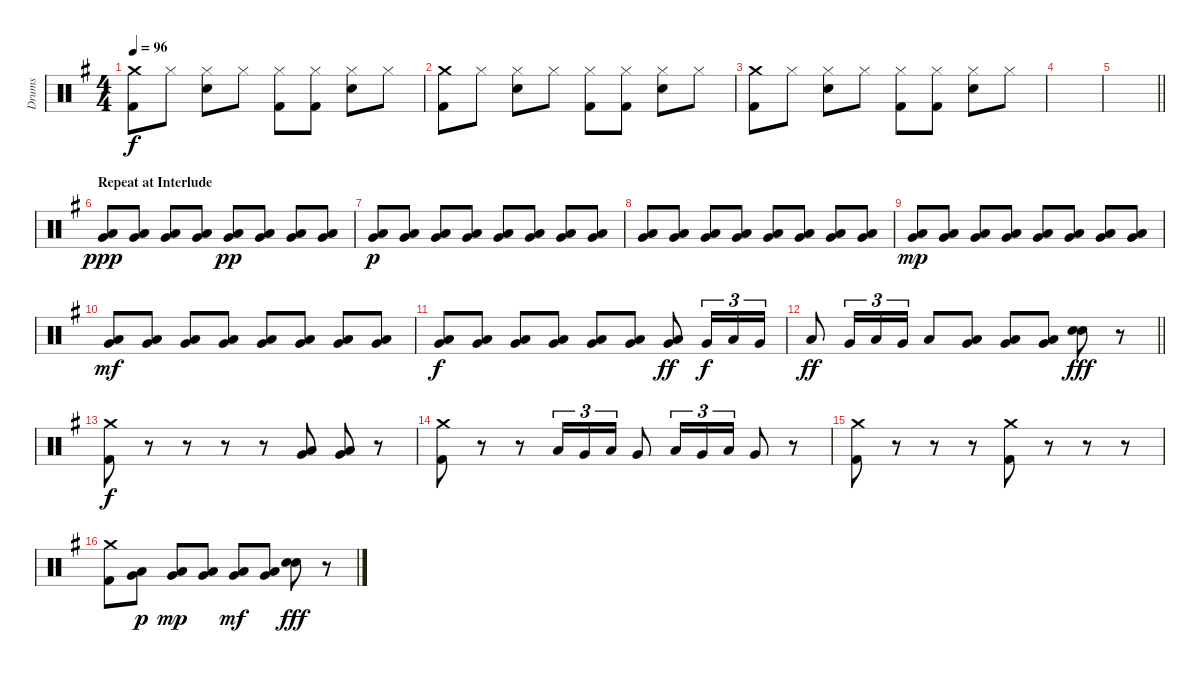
\track ("Drums" "Drums") {instrument percussion}
\staff {score}
\articulation defaults
\ts (4 4)
\tempo 96
\clef neutral
\ks g
("Crash medium (hit)" "Kick (hit) 2").8{dy f} "Hi-Hat (closed)".8 ("Hi-Hat (closed)" "Snare (hit) 2").8 "Hi-Hat (closed)".8 ("Hi-Hat (closed)" "Kick (hit) 2").8 ("Hi-Hat (closed)" "Kick (hit) 2").8 ("Hi-Hat (closed)" "Snare (hit) 2").8 "Hi-Hat (closed)".8 |
("Crash medium (hit)" "Kick (hit) 2").8 "Hi-Hat (closed)".8 ("Hi-Hat (closed)" "Snare (hit) 2").8 "Hi-Hat (closed)".8 ("Hi-Hat (closed)" "Kick (hit) 2").8 ("Hi-Hat (closed)" "Kick (hit) 2").8 ("Hi-Hat (closed)" "Snare (hit) 2").8 "Hi-Hat (closed)".8 |
("Crash medium (hit)" "Kick (hit) 2").8 "Hi-Hat (closed)".8 ("Hi-Hat (closed)" "Snare (hit) 2").8 "Hi-Hat (closed)".8 ("Hi-Hat (closed)" "Kick (hit) 2").8 ("Hi-Hat (closed)" "Kick (hit) 2").8 ("Hi-Hat (closed)" "Snare (hit) 2").8 "Hi-Hat (closed)".8 |
|
\barLineRight lightlight
|
\section ("" "Repeat at Interlude")
("Low Tom (hit)" "Very Low Tom (hit)").8{dy ppp} ("Low Tom (hit)" "Very Low Tom (hit)").8 ("Low Tom (hit)" "Very Low Tom (hit)").8 ("Low Tom (hit)" "Very Low Tom (hit)").8 ("Low Tom (hit)" "Very Low Tom (hit)").8{dy pp} ("Low Tom (hit)" "Very Low Tom (hit)").8 ("Low Tom (hit)" "Very Low Tom (hit)").8 ("Low Tom (hit)" "Very Low Tom (hit)").8 |
("Low Tom (hit)" "Very Low Tom (hit)").8{dy p} ("Low Tom (hit)" "Very Low Tom (hit)").8 ("Low Tom (hit)" "Very Low Tom (hit)").8 ("Low Tom (hit)" "Very Low Tom (hit)").8 ("Low Tom (hit)" "Very Low Tom (hit)").8 ("Low Tom (hit)" "Very Low Tom (hit)").8 ("Low Tom (hit)" "Very Low Tom (hit)").8 ("Low Tom (hit)" "Very Low Tom (hit)").8 |
("Low Tom (hit)" "Very Low Tom (hit)").8 ("Low Tom (hit)" "Very Low Tom (hit)").8 ("Low Tom (hit)" "Very Low Tom (hit)").8 ("Low Tom (hit)" "Very Low Tom (hit)").8 ("Low Tom (hit)" "Very Low Tom (hit)").8 ("Low Tom (hit)" "Very Low Tom (hit)").8 ("Low Tom (hit)" "Very Low Tom (hit)").8 ("Low Tom (hit)" "Very Low Tom (hit)").8 |
("Low Tom (hit)" "Very Low Tom (hit)").8{dy mp} ("Low Tom (hit)" "Very Low Tom (hit)").8 ("Low Tom (hit)" "Very Low Tom (hit)").8 ("Low Tom (hit)" "Very Low Tom (hit)").8 ("Low Tom (hit)" "Very Low Tom (hit)").8 ("Low Tom (hit)" "Very Low Tom (hit)").8 ("Low Tom (hit)" "Very Low Tom (hit)").8 ("Low Tom (hit)" "Very Low Tom (hit)").8 |
("Low Tom (hit)" "Very Low Tom (hit)").8{dy mf} ("Low Tom (hit)" "Very Low Tom (hit)").8 ("Low Tom (hit)" "Very Low Tom (hit)").8 ("Low Tom (hit)" "Very Low Tom (hit)").8 ("Low Tom (hit)" "Very Low Tom (hit)").8 ("Low Tom (hit)" "Very Low Tom (hit)").8 ("Low Tom (hit)" "Very Low Tom (hit)").8 ("Low Tom (hit)" "Very Low Tom (hit)").8 |
("Low Tom (hit)" "Very Low Tom (hit)").8{dy f} ("Low Tom (hit)" "Very Low Tom (hit)").8 ("Low Tom (hit)" "Very Low Tom (hit)").8 ("Low Tom (hit)" "Very Low Tom (hit)").8 ("Low Tom (hit)" "Very Low Tom (hit)").8 ("Low Tom (hit)" "Very Low Tom (hit)").8 ("Low Tom (hit)" "Very Low Tom (hit)").8{dy ff} "Very Low Tom (hit)".16{tu (3 2) dy f} "Low Tom (hit)".16{tu (3 2)} "Very Low Tom (hit)".16{tu (3 2)} |
\barLineRight lightlight "Low Tom (hit)".8{dy ff} "Very Low Tom (hit)".16{tu (3 2)} "Low Tom (hit)".16{tu (3 2)} "Very Low Tom (hit)".16{tu (3 2)} "Low Tom (hit)".8
("Low Tom (hit)" "Very Low Tom (hit)").8 ("Low Tom (hit)" "Very Low Tom (hit)").8 ("Low Tom (hit)" "Very Low Tom (hit)").8 ("Snare (hit) 2" "Snare (hit) 2").8{dy fff} r.8 |
("Crash medium (hit)" "Kick (hit) 2").8{dy f} r.8 r.8 r.8 r.8 ("Low Tom (hit)" "Very Low Tom (hit)").8 ("Very Low Tom (hit)" "Low Floor Tom (hit)").8 r.8 |
("Crash medium (hit)" "Kick (hit) 2").8 r.8 r.8 "Low Tom (hit)".16{tu (3 2)} "Very Low Tom (hit)".16{tu (3 2)} "Low Tom (hit)".16{tu (3 2)} "Very Low Tom (hit)".8 "Low Tom (hit)".16{tu (3 2)} "Very Low Tom (hit)".16{tu (3 2)} "Low Tom (hit)".16{tu (3 2)} "Very Low Tom (hit)".8 r.8 |
("Crash medium (hit)" "Kick (hit) 2").8 r.8 r.8 r.8 ("Crash medium (hit)" "Kick (hit) 2").8 r.8 r.8 r.8 |
("Crash medium (hit)" "Kick (hit) 2").8 ("Low Tom (hit)" "Very Low Tom (hit)").8{dy p} ("Low Tom (hit)" "Very Low Tom (hit)").8{dy mp} ("Low Tom (hit)" "Very Low Tom (hit)").8 ("Low Tom (hit)" "Very Low Tom (hit)").8{dy mf} ("Low Tom (hit)" "Very Low Tom (hit)").8 ("Snare (hit) 2" "Snare (hit) 2").8{dy fff} r.8
